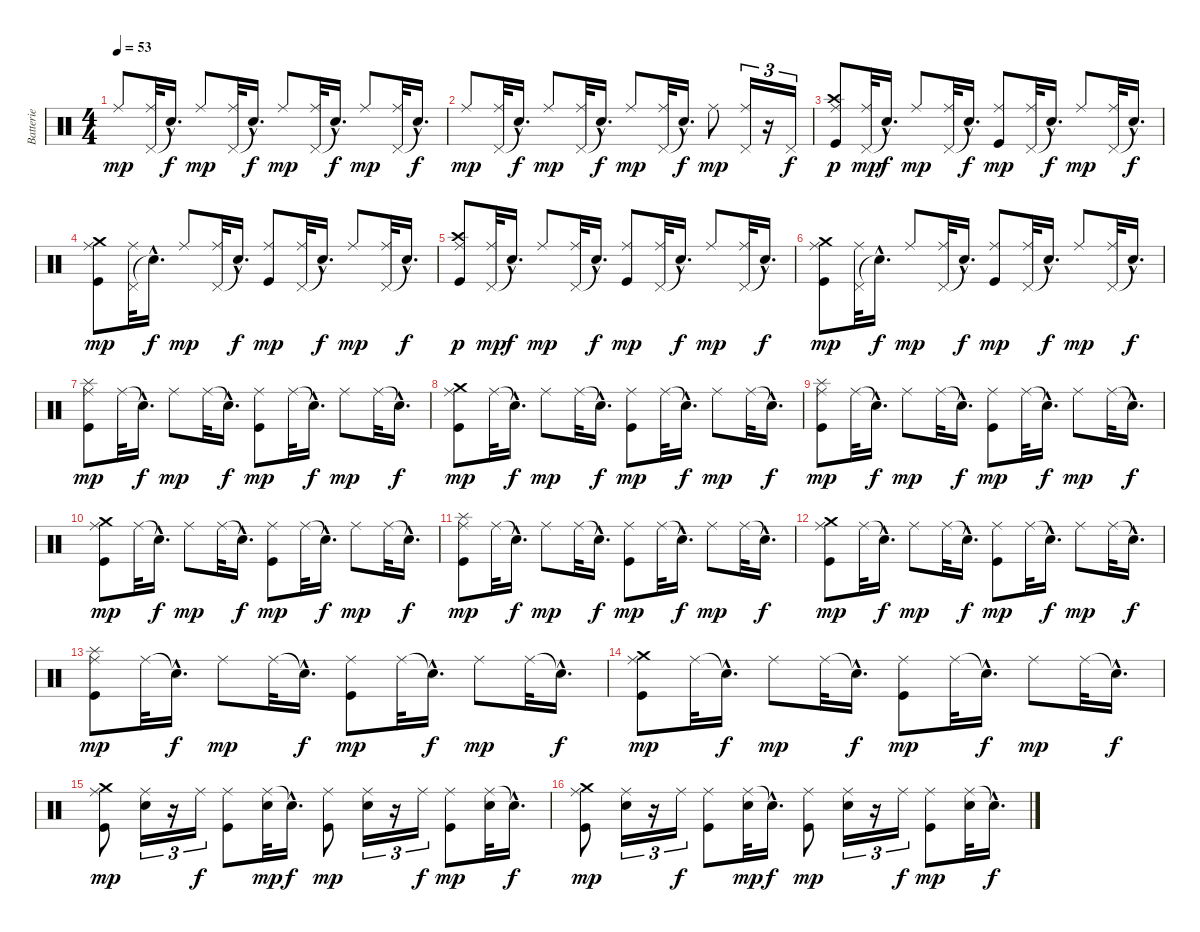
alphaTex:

\track ("Batterie" "Batterie") {instrument percussion}
\staff {score}
\articulation defaults
\ts (4 4)
\tempo 53
\clef neutral
\ks c "Ride (middle)".8{dy mp}
("Pedal Hi-Hat (hit)" "Ride (middle)").32 "Snare (hit)"{hac t}.16{d dy f} "Ride (middle)".8{dy mp} ("Pedal Hi-Hat (hit)" "Ride (middle)").32 "Snare (hit)"{hac t}.16{d dy f} "Ride (middle)".8{dy mp} ("Pedal Hi-Hat (hit)" "Ride (middle)").32 "Snare (hit)"{hac t}.16{d dy f} "Ride (middle)".8{dy mp} ("Pedal Hi-Hat (hit)" "Ride (middle)").32 "Snare (hit)"{hac t}.16{d dy f} |
"Ride (middle)".8{dy mp} ("Pedal Hi-Hat (hit)" "Ride (middle)").32 "Snare (hit)"{hac t}.16{d dy f} "Ride (middle)".8{dy mp} ("Pedal Hi-Hat (hit)" "Ride (middle)").32 "Snare (hit)"{hac t}.16{d dy f} "Ride (middle)".8{dy mp} ("Pedal Hi-Hat (hit)" "Ride (middle)").32 "Snare (hit)"{hac t}.16{d dy f} "Ride (middle)".8{dy mp} ("Pedal Hi-Hat (hit)" "Ride (middle)").16{tu (3 2)} r.16{tu (3 2)} "Pedal Hi-Hat (hit)".16{tu (3 2) dy f} |
("Ride (middle)" "Crash high (hit)" "Kick (hit)").8{dy p} ("Pedal Hi-Hat (hit)" "Ride (middle)").32{dy mp} "Snare (hit)"{hac t}.16{d dy f} "Ride (middle)".8{dy mp} ("Pedal Hi-Hat (hit)" "Ride (middle)").32 "Snare (hit)"{hac t}.16{d dy f} ("Ride (middle)" "Kick (hit)").8{dy mp} ("Pedal Hi-Hat (hit)" "Ride (middle)").32 "Snare (hit)"{hac t}.16{d dy f} "Ride (middle)".8{dy mp} ("Pedal Hi-Hat (hit)" "Ride (middle)").32 "Snare (hit)"{hac t}.16{d dy f} |
("Ride (middle)" "Crash medium (hit)" "Kick (hit)").8{dy mp} ("Pedal Hi-Hat (hit)" "Ride (middle)").32 "Snare (hit)"{hac t}.16{d dy f} "Ride (middle)".8{dy mp} ("Pedal Hi-Hat (hit)" "Ride (middle)").32 "Snare (hit)"{hac t}.16{d dy f} ("Ride (middle)" "Kick (hit)").8{dy mp} ("Pedal Hi-Hat (hit)" "Ride (middle)").32 "Snare (hit)"{hac t}.16{d dy f} "Ride (middle)".8{dy mp} ("Pedal Hi-Hat (hit)" "Ride (middle)").32 "Snare (hit)"{hac t}.16{d dy f} |
("Ride (middle)" "Crash high (hit)" "Kick (hit)").8{dy p} ("Pedal Hi-Hat (hit)" "Ride (middle)").32{dy mp} "Snare (hit)"{hac t}.16{d dy f} "Ride (middle)".8{dy mp} ("Pedal Hi-Hat (hit)" "Ride (middle)").32 "Snare (hit)"{hac t}.16{d dy f} ("Ride (middle)" "Kick (hit)").8{dy mp} ("Pedal Hi-Hat (hit)" "Ride (middle)").32 "Snare (hit)"{hac t}.16{d dy f} "Ride (middle)".8{dy mp} ("Pedal Hi-Hat (hit)" "Ride (middle)").32 "Snare (hit)"{hac t}.16{d dy f} |
("Ride (middle)" "Crash medium (hit)" "Kick (hit)").8{dy mp} ("Pedal Hi-Hat (hit)" "Ride (middle)").32 "Snare (hit)"{hac t}.16{d dy f} "Ride (middle)".8{dy mp} ("Pedal Hi-Hat (hit)" "Ride (middle)").32 "Snare (hit)"{hac t}.16{d dy f} ("Ride (middle)" "Kick (hit)").8{dy mp} ("Pedal Hi-Hat (hit)" "Ride (middle)").32 "Snare (hit)"{hac t}.16{d dy f} "Ride (middle)".8{dy mp} ("Pedal Hi-Hat (hit)" "Ride (middle)").32 "Snare (hit)"{hac t}.16{d dy f} |
("Ride (middle)" "Splash (hit)" "Kick (hit)").8{dy mp} "Ride (middle)".32 "Snare (hit)"{hac t}.16{d dy f} "Ride (middle)".8{dy mp} "Ride (middle)".32 "Snare (hit)"{hac t}.16{d dy f} ("Ride (middle)" "Kick (hit)").8{dy mp} "Ride (middle)".32 "Snare (hit)"{hac t}.16{d dy f} "Ride (middle)".8{dy mp} "Ride (middle)".32 "Snare (hit)"{hac t}.16{d dy f} |
("Ride (middle)" "Crash medium (hit)" "Kick (hit)").8{dy mp} "Ride (middle)".32 "Snare (hit)"{hac t}.16{d dy f} "Ride (middle)".8{dy mp} "Ride (middle)".32 "Snare (hit)"{hac t}.16{d dy f} ("Ride (middle)" "Kick (hit)").8{dy mp} "Ride (middle)".32 "Snare (hit)"{hac t}.16{d dy f} "Ride (middle)".8{dy mp} "Ride (middle)".32 "Snare (hit)"{hac t}.16{d dy f} |
("Ride (middle)" "Splash (hit)" "Kick (hit)").8{dy mp} "Ride (middle)".32 "Snare (hit)"{hac t}.16{d dy f} "Ride (middle)".8{dy mp} "Ride (middle)".32 "Snare (hit)"{hac t}.16{d dy f} ("Ride (middle)" "Kick (hit)").8{dy mp} "Ride (middle)".32 "Snare (hit)"{hac t}.16{d dy f} "Ride (middle)".8{dy mp} "Ride (middle)".32 "Snare (hit)"{hac t}.16{d dy f} |
("Ride (middle)" "Crash medium (hit)" "Kick (hit)").8{dy mp} "Ride (middle)".32 "Snare (hit)"{hac t}.16{d dy f} "Ride (middle)".8{dy mp} "Ride (middle)".32 "Snare (hit)"{hac t}.16{d dy f} ("Ride (middle)" "Kick (hit)").8{dy mp} "Ride (middle)".32 "Snare (hit)"{hac t}.16{d dy f} "Ride (middle)".8{dy mp} "Ride (middle)".32 "Snare (hit)"{hac t}.16{d dy f} |
("Ride (middle)" "Splash (hit)" "Kick (hit)").8{dy mp} "Ride (middle)".32 "Snare (hit)"{hac t}.16{d dy f} "Ride (middle)".8{dy mp} "Ride (middle)".32 "Snare (hit)"{hac t}.16{d dy f} ("Ride (middle)" "Kick (hit)").8{dy mp} "Ride (middle)".32 "Snare (hit)"{hac t}.16{d dy f} "Ride (middle)".8{dy mp} "Ride (middle)".32 "Snare (hit)"{hac t}.16{d dy f} |
("Ride (middle)" "Crash medium (hit)" "Kick (hit)").8{dy mp} "Ride (middle)".32 "Snare (hit)"{hac t}.16{d dy f} "Ride (middle)".8{dy mp} "Ride (middle)".32 "Snare (hit)"{hac t}.16{d dy f} ("Ride (middle)" "Kick (hit)").8{dy mp} "Ride (middle)".32 "Snare (hit)"{hac t}.16{d dy f} "Ride (middle)".8{dy mp} "Ride (middle)".32 "Snare (hit)"{hac t}.16{d dy f} |
("Ride (middle)" "Splash (hit)" "Kick (hit)").8{dy mp} "Ride (middle)".32 "Snare (hit)"{hac t}.16{d dy f} "Ride (middle)".8{dy mp} "Ride (middle)".32 "Snare (hit)"{hac t}.16{d dy f} ("Ride (middle)" "Kick (hit)").8{dy mp} "Ride (middle)".32 "Snare (hit)"{hac t}.16{d dy f} "Ride (middle)".8{dy mp} "Ride (middle)".32 "Snare (hit)"{hac t}.16{d dy f} |
("Ride (middle)" "Crash medium (hit)" "Kick (hit)").8{dy mp} "Ride (middle)".32 "Snare (hit)"{hac t}.16{d dy f} "Ride (middle)".8{dy mp} "Ride (middle)".32 "Snare (hit)"{hac t}.16{d dy f} ("Ride (middle)" "Kick (hit)").8{dy mp} "Ride (middle)".32 "Snare (hit)"{hac t}.16{d dy f} "Ride (middle)".8{dy mp} "Ride (middle)".32 "Snare (hit)"{hac t}.16{d dy f} |
("Ride (middle)" "Crash medium (hit)" "Kick (hit)").8{dy mp} ("Ride (middle)" "Snare (hit) 2").16{tu (3 2)} r.16{tu (3 2)} "Ride (middle)".16{tu (3 2) dy f} ("Ride (middle)" "Kick (hit)").8 ("Ride (middle)" "Snare (hit) 2").32{dy mp} "Snare (hit)"{hac t}.16{d dy f} ("Ride (middle)" "Kick (hit)").8{dy mp} ("Ride (middle)" "Snare (hit) 2").16{tu (3 2)} r.16{tu (3 2)} "Ride (middle)".16{tu (3 2) dy f} ("Ride (middle)" "Kick (hit)").8{dy mp} ("Ride (middle)" "Snare (hit) 2").32 "Snare (hit)"{hac t}.16{d dy f} |
("Ride (middle)" "Crash medium (hit)" "Kick (hit)").8{dy mp} ("Ride (middle)" "Snare (hit) 2").16{tu (3 2)} r.16{tu (3 2)} "Ride (middle)".16{tu (3 2) dy f} ("Ride (middle)" "Kick (hit)").8 ("Ride (middle)" "Snare (hit) 2").32{dy mp} "Snare (hit)"{hac t}.16{d dy f} ("Ride (middle)" "Kick (hit)").8{dy mp} ("Ride (middle)" "Snare (hit) 2").16{tu (3 2)} r.16{tu (3 2)} "Ride (middle)".16{tu (3 2) dy f} ("Ride (middle)" "Kick (hit)").8{dy mp} ("Ride (middle)" "Snare (hit) 2").32 "Snare (hit)"{hac t}.16{d dy f}
